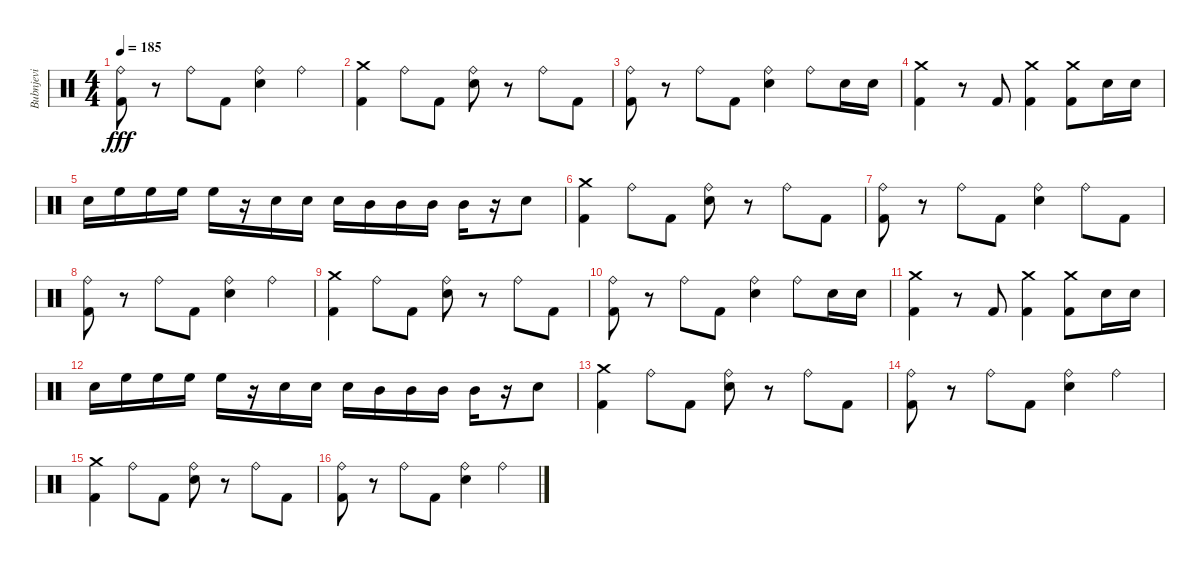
\track ("Bubnjevi" "Bubnjevi") {instrument percussion}
\staff {score}
\articulation defaults
\ts (4 4)
\tempo 185
\clef neutral
\ks c
("Ride (bell)" "Kick (hit) 2").8{dy fff} r.8 "Ride (bell)".8 "Kick (hit) 2".8 ("Ride (bell)" "Snare (hit) 2").4 "Ride (bell)".4 |
("Crash medium (hit)" "Kick (hit) 2").4 "Ride (bell)".8 "Kick (hit) 2".8 ("Ride (bell)" "Snare (hit) 2").8 r.8 "Ride (bell)".8 "Kick (hit) 2".8 |
("Ride (bell)" "Kick (hit) 2").8 r.8 "Ride (bell)".8 "Kick (hit) 2".8 ("Ride (bell)" "Snare (hit) 2").4 "Ride (bell)".8 "Snare (hit) 2".16 "Snare (hit) 2".16 |
("Crash medium (hit)" "Kick (hit) 2").4 r.8 "Kick (hit) 2".8 ("Crash medium (hit)" "Kick (hit) 2").4 ("Crash medium (hit)" "Kick (hit) 2").8 "Snare (hit) 2".16 "Snare (hit) 2".16 |
"Snare (hit) 2".16 "High Floor Tom (hit)".16 "High Floor Tom (hit)".16 "High Floor Tom (hit)".16 "High Floor Tom (hit)".16 r.16 "Snare (hit) 2".16 "Snare (hit) 2".16 "Snare (hit) 2".16 "Mid Tom (hit)".16 "Mid Tom (hit)".16 "Mid Tom (hit)".16 "Mid Tom (hit)".16 r.16 "Snare (hit) 2".8 |
("Crash medium (hit)" "Kick (hit) 2").4 "Ride (bell)".8 "Kick (hit) 2".8 ("Ride (bell)" "Snare (hit) 2").8 r.8 "Ride (bell)".8 "Kick (hit) 2".8 |
("Ride (bell)" "Kick (hit) 2").8 r.8 "Ride (bell)".8 "Kick (hit) 2".8 ("Ride (bell)" "Snare (hit) 2").4 "Ride (bell)".8 "Kick (hit) 2".8 |
("Ride (bell)" "Kick (hit) 2").8 r.8 "Ride (bell)".8 "Kick (hit) 2".8 ("Ride (bell)" "Snare (hit) 2").4 "Ride (bell)".4 |
("Crash medium (hit)" "Kick (hit) 2").4 "Ride (bell)".8 "Kick (hit) 2".8 ("Ride (bell)" "Snare (hit) 2").8 r.8 "Ride (bell)".8 "Kick (hit) 2".8 |
("Ride (bell)" "Kick (hit) 2").8 r.8 "Ride (bell)".8 "Kick (hit) 2".8 ("Ride (bell)" "Snare (hit) 2").4 "Ride (bell)".8 "Snare (hit) 2".16 "Snare (hit) 2".16 |
("Crash medium (hit)" "Kick (hit) 2").4 r.8 "Kick (hit) 2".8 ("Crash medium (hit)" "Kick (hit) 2").4 ("Crash medium (hit)" "Kick (hit) 2").8 "Snare (hit) 2".16 "Snare (hit) 2".16 |
"Snare (hit) 2".16 "High Floor Tom (hit)".16 "High Floor Tom (hit)".16 "High Floor Tom (hit)".16 "High Floor Tom (hit)".16 r.16 "Snare (hit) 2".16 "Snare (hit) 2".16 "Snare (hit) 2".16 "Mid Tom (hit)".16 "Mid Tom (hit)".16 "Mid Tom (hit)".16 "Mid Tom (hit)".16 r.16 "Snare (hit) 2".8 |
("Crash medium (hit)" "Kick (hit) 2").4 "Ride (bell)".8 "Kick (hit) 2".8 ("Ride (bell)" "Snare (hit) 2").8 r.8 "Ride (bell)".8 "Kick (hit) 2".8 |
("Ride (bell)" "Kick (hit) 2").8 r.8 "Ride (bell)".8 "Kick (hit) 2".8 ("Ride (bell)" "Snare (hit) 2").4 "Ride (bell)".4 |
("Crash medium (hit)" "Kick (hit) 2").4 "Ride (bell)".8 "Kick (hit) 2".8 ("Ride (bell)" "Snare (hit) 2").8 r.8 "Ride (bell)".8 "Kick (hit) 2".8 |
("Ride (bell)" "Kick (hit) 2").8 r.8 "Ride (bell)".8 "Kick (hit) 2".8 ("Ride (bell)" "Snare (hit) 2").4 "Ride (bell)".4
